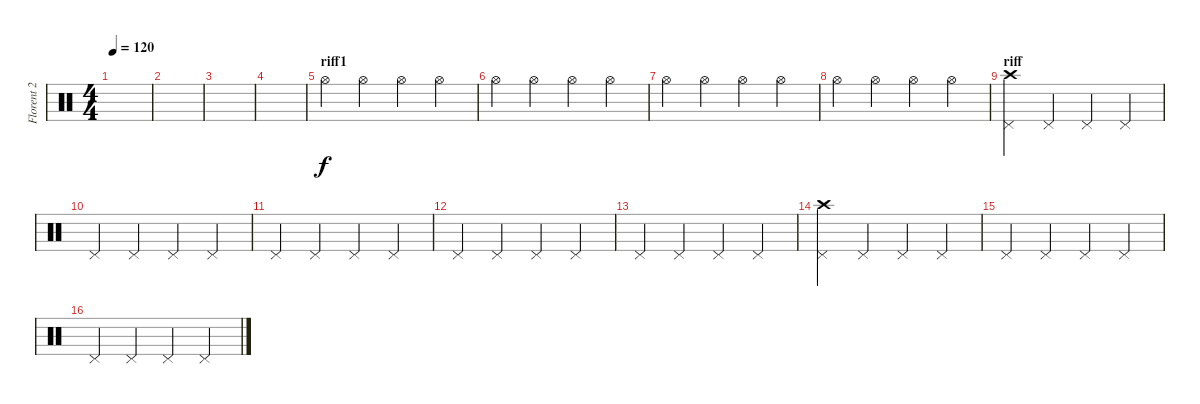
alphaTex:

\track ("Florent 2" "Florent 2") {instrument percussion}
\staff {score}
\articulation defaults
\ts (4 4)
\tempo 120
\clef neutral
\ks c
|
|
|
|
\section ("" "riff1")
"Hi-Hat (open)".4 "Hi-Hat (open)".4 "Hi-Hat (open)".4 "Hi-Hat (open)".4 |
"Hi-Hat (open)".4 "Hi-Hat (open)".4 "Hi-Hat (open)".4 "Hi-Hat (open)".4 |
"Hi-Hat (open)".4 "Hi-Hat (open)".4 "Hi-Hat (open)".4 "Hi-Hat (open)".4 |
"Hi-Hat (open)".4 "Hi-Hat (open)".4 "Hi-Hat (open)".4 "Hi-Hat (open)".4 |
\section ("" "riff")
("Pedal Hi-Hat (hit)" "Crash high (hit)").4 "Pedal Hi-Hat (hit)".4 "Pedal Hi-Hat (hit)".4 "Pedal Hi-Hat (hit)".4 |
"Pedal Hi-Hat (hit)".4 "Pedal Hi-Hat (hit)".4 "Pedal Hi-Hat (hit)".4 "Pedal Hi-Hat (hit)".4 |
"Pedal Hi-Hat (hit)".4 "Pedal Hi-Hat (hit)".4 "Pedal Hi-Hat (hit)".4 "Pedal Hi-Hat (hit)".4 |
"Pedal Hi-Hat (hit)".4 "Pedal Hi-Hat (hit)".4 "Pedal Hi-Hat (hit)".4 "Pedal Hi-Hat (hit)".4 |
"Pedal Hi-Hat (hit)".4 "Pedal Hi-Hat (hit)".4 "Pedal Hi-Hat (hit)".4 "Pedal Hi-Hat (hit)".4 |
("Pedal Hi-Hat (hit)" "Crash high (hit)").4 "Pedal Hi-Hat (hit)".4 "Pedal Hi-Hat (hit)".4 "Pedal Hi-Hat (hit)".4 |
"Pedal Hi-Hat (hit)".4 "Pedal Hi-Hat (hit)".4 "Pedal Hi-Hat (hit)".4 "Pedal Hi-Hat (hit)".4 |
"Pedal Hi-Hat (hit)".4 "Pedal Hi-Hat (hit)".4 "Pedal Hi-Hat (hit)".4 "Pedal Hi-Hat (hit)".4
